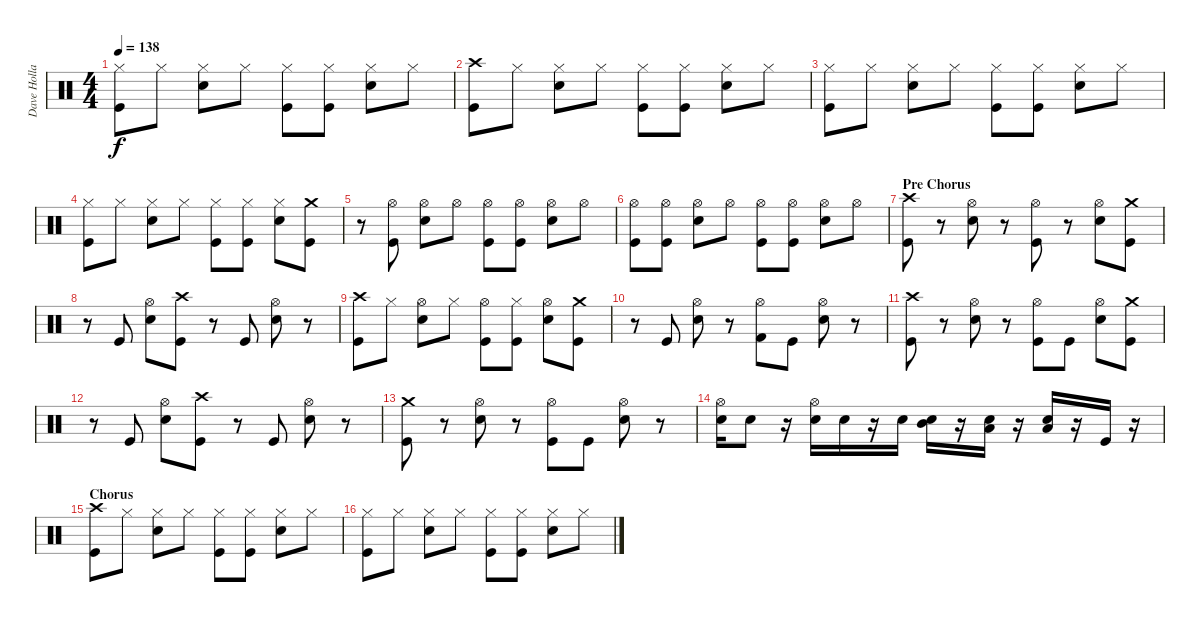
\track ("Dave Holland" "Dave Holla") {instrument percussion}
\staff {score}
\articulation defaults
\ts (4 4)
\tempo 138
\clef neutral
\ks c
("Hi-Hat (closed)" "Kick (hit)").8{dy f} "Hi-Hat (closed)".8 ("Hi-Hat (closed)" "Electric Snare (hit)").8 "Hi-Hat (closed)".8 ("Hi-Hat (closed)" "Kick (hit)").8 ("Hi-Hat (closed)" "Kick (hit)").8 ("Hi-Hat (closed)" "Electric Snare (hit)").8 "Hi-Hat (closed)".8 |
("Crash high (hit)" "Kick (hit)").8 "Hi-Hat (closed)".8 ("Hi-Hat (closed)" "Electric Snare (hit)").8 "Hi-Hat (closed)".8 ("Hi-Hat (closed)" "Kick (hit)").8 ("Hi-Hat (closed)" "Kick (hit)").8 ("Hi-Hat (closed)" "Electric Snare (hit)").8 "Hi-Hat (closed)".8 |
("Hi-Hat (closed)" "Kick (hit)").8 "Hi-Hat (closed)".8 ("Hi-Hat (closed)" "Electric Snare (hit)").8 "Hi-Hat (closed)".8 ("Hi-Hat (closed)" "Kick (hit)").8 ("Hi-Hat (closed)" "Kick (hit)").8 ("Hi-Hat (closed)" "Electric Snare (hit)").8 "Hi-Hat (closed)".8 |
("Hi-Hat (closed)" "Kick (hit)").8 "Hi-Hat (closed)".8 ("Hi-Hat (closed)" "Electric Snare (hit)").8 "Hi-Hat (closed)".8 ("Hi-Hat (closed)" "Kick (hit)").8 ("Hi-Hat (closed)" "Kick (hit)").8 ("Hi-Hat (closed)" "Electric Snare (hit)").8 ("Crash medium (hit)" "Kick (hit)").8 |
r.8 ("Hi-Hat (open)" "Kick (hit)").8 ("Hi-Hat (open)" "Electric Snare (hit)").8 "Hi-Hat (open)".8 ("Hi-Hat (open)" "Kick (hit)").8 ("Hi-Hat (open)" "Kick (hit)").8 ("Hi-Hat (open)" "Electric Snare (hit)").8 "Hi-Hat (open)".8 |
("Hi-Hat (open)" "Kick (hit)").8 ("Hi-Hat (open)" "Kick (hit)").8 ("Hi-Hat (open)" "Electric Snare (hit)").8 "Hi-Hat (open)".8 ("Hi-Hat (open)" "Kick (hit)").8 ("Hi-Hat (open)" "Kick (hit)").8 ("Hi-Hat (open)" "Electric Snare (hit)").8 "Hi-Hat (open)".8 |
\section ("" "Pre Chorus")
("Crash high (hit)" "Kick (hit)").8 r.8 ("Hi-Hat (open)" "Electric Snare (hit)").8 r.8 ("Hi-Hat (open)" "Kick (hit)").8 r.8 ("Hi-Hat (open)" "Electric Snare (hit)").8 ("Crash medium (hit)" "Kick (hit)").8 |
r.8 "Kick (hit)".8 ("Hi-Hat (open)" "Electric Snare (hit)").8 ("Crash high (hit)" "Kick (hit)").8 r.8 "Kick (hit)".8 ("Hi-Hat (open)" "Electric Snare (hit)").8 r.8 |
("Crash high (hit)" "Kick (hit)").8 "Hi-Hat (closed)".8 ("Hi-Hat (open)" "Electric Snare (hit)").8 "Hi-Hat (closed)".8 ("Hi-Hat (open)" "Kick (hit)").8 ("Hi-Hat (closed)" "Kick (hit)").8 ("Hi-Hat (open)" "Electric Snare (hit)").8 ("Crash medium (hit)" "Kick (hit)").8 |
r.8 "Kick (hit)".8 ("Hi-Hat (open)" "Electric Snare (hit)").8 r.8 ("Hi-Hat (open)" "Kick (hit) 2").8 "Kick (hit)".8 ("Hi-Hat (open)" "Electric Snare (hit)").8 r.8 |
("Crash high (hit)" "Kick (hit)").8 r.8 ("Hi-Hat (open)" "Electric Snare (hit)").8 r.8 ("Hi-Hat (open)" "Kick (hit)").8 "Kick (hit)".8 ("Hi-Hat (open)" "Electric Snare (hit)").8 ("Crash medium (hit)" "Kick (hit)").8 |
r.8 "Kick (hit)".8 ("Hi-Hat (open)" "Electric Snare (hit)").8 ("Crash high (hit)" "Kick (hit)").8 r.8 "Kick (hit)".8 ("Hi-Hat (open)" "Electric Snare (hit)").8 r.8 |
("Crash medium (hit)" "Kick (hit)").8 r.8 ("Hi-Hat (open)" "Electric Snare (hit)").8 r.8 ("Hi-Hat (open)" "Kick (hit)").8 "Kick (hit)".8 ("Hi-Hat (open)" "Electric Snare (hit)").8 r.8 |
("Hi-Hat (open)" "Electric Snare (hit)").16 "Electric Snare (hit)".8 r.16 ("Hi-Hat (open)" "Electric Snare (hit)").16 "Electric Snare (hit)".16 r.16 "Electric Snare (hit)".16 ("Mid Tom (hit)" "Electric Snare (hit)").16 r.16 ("Low Tom (hit)" "Electric Snare (hit)").16 r.16 ("Low Tom (hit)" "Electric Snare (hit)").16 r.16 "Kick (hit)".16 r.16 |
\section ("" "Chorus")
("Crash high (hit)" "Kick (hit)").8 "Hi-Hat (closed)".8 ("Hi-Hat (closed)" "Electric Snare (hit)").8 "Hi-Hat (closed)".8 ("Hi-Hat (closed)" "Kick (hit)").8 ("Hi-Hat (closed)" "Kick (hit)").8 ("Hi-Hat (closed)" "Electric Snare (hit)").8 "Hi-Hat (closed)".8 |
("Hi-Hat (closed)" "Kick (hit)").8 "Hi-Hat (closed)".8 ("Hi-Hat (closed)" "Electric Snare (hit)").8 "Hi-Hat (closed)".8 ("Hi-Hat (closed)" "Kick (hit)").8 ("Hi-Hat (closed)" "Kick (hit)").8 ("Hi-Hat (closed)" "Electric Snare (hit)").8 "Hi-Hat (closed)".8
